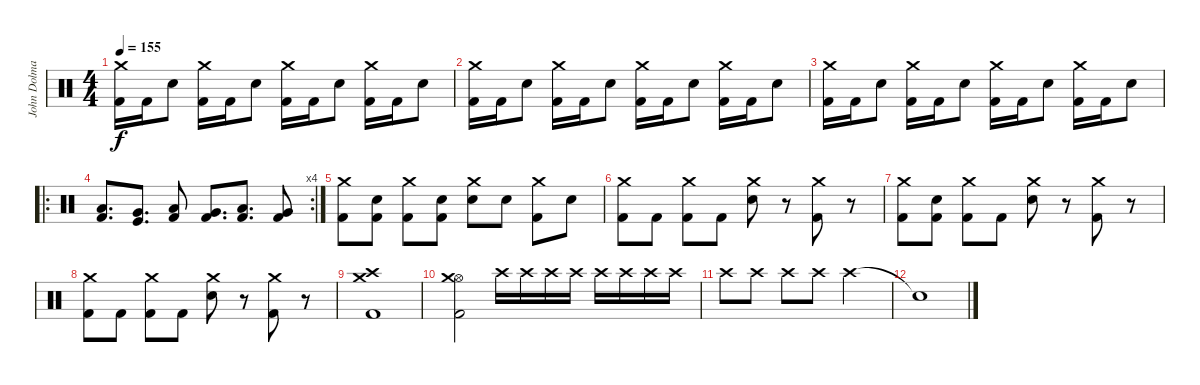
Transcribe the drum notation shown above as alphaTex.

\track ("John Dolmayan - Drums" "John Dolma") {instrument percussion}
\staff {score}
\articulation defaults
\ts (4 4)
\tempo 155
\clef neutral
\ks c
("Crash medium (hit)" "Kick (hit) 2").16{dy f} "Kick (hit) 2".16 "Electric Snare (hit)".8 ("Crash medium (hit)" "Kick (hit) 2").16 "Kick (hit) 2".16 "Electric Snare (hit)".8 ("Crash medium (hit)" "Kick (hit) 2").16 "Kick (hit) 2".16 "Electric Snare (hit)".8 ("Crash medium (hit)" "Kick (hit) 2").16 "Kick (hit) 2".16 "Electric Snare (hit)".8 |
("Kick (hit) 2" "Crash medium (hit)").16 "Kick (hit) 2".16 "Electric Snare (hit)".8 ("Kick (hit) 2" "Crash medium (hit)").16 "Kick (hit) 2".16 "Electric Snare (hit)".8 ("Kick (hit) 2" "Crash medium (hit)").16 "Kick (hit) 2".16 "Electric Snare (hit)".8 ("Kick (hit) 2" "Crash medium (hit)").16 "Kick (hit) 2".16 "Electric Snare (hit)".8 |
("Kick (hit) 2" "Crash medium (hit)").16 "Kick (hit) 2".16 "Electric Snare (hit)".8 ("Kick (hit) 2" "Crash medium (hit)").16 "Kick (hit) 2".16 "Electric Snare (hit)".8 ("Kick (hit) 2" "Crash medium (hit)").16 "Kick (hit) 2".16 "Electric Snare (hit)".8 ("Kick (hit) 2" "Crash medium (hit)").16 "Kick (hit) 2".16 "Electric Snare (hit)".8 |
\ro
\rc 4
("Low Tom (hit)" "Kick (hit) 2").8{d} ("Very Low Tom (hit)" "Kick (hit)").8{d} ("Low Tom (hit)" "Kick (hit) 2").8 ("Very Low Tom (hit)" "Kick (hit) 2").8{d} ("Low Tom (hit)" "Kick (hit) 2").8{d} ("Very Low Tom (hit)" "Kick (hit) 2").8 |
("Crash medium (hit)" "Kick (hit) 2").8 ("Snare (hit)" "Kick (hit) 2").8 ("Crash medium (hit)" "Kick (hit) 2").8 ("Snare (hit)" "Kick (hit) 2").8 ("Crash medium (hit)" "Electric Snare (hit)").8 "Snare (hit)".8 ("Crash medium (hit)" "Kick (hit) 2").8 "Snare (hit)".8 |
("Crash medium (hit)" "Kick (hit) 2").8 "Kick (hit) 2".8 ("Crash medium (hit)" "Kick (hit) 2").8 "Kick (hit) 2".8 ("Crash medium (hit)" "Electric Snare (hit)").8 r.8 ("Crash medium (hit)" "Kick (hit) 2").8 r.8 |
("Crash medium (hit)" "Kick (hit) 2").8 ("Snare (hit)" "Kick (hit) 2").8 ("Crash medium (hit)" "Kick (hit) 2").8 "Kick (hit) 2".8 ("Crash medium (hit)" "Electric Snare (hit)").8 r.8 ("Crash medium (hit)" "Kick (hit) 2").8 r.8 |
("Crash medium (hit)" "Kick (hit) 2").8 "Kick (hit) 2".8 ("Crash medium (hit)" "Kick (hit) 2").8 "Kick (hit) 2".8 ("Crash medium (hit)" "Electric Snare (hit)").8 r.8 ("Crash medium (hit)" "Kick (hit) 2").8 r.8 |
("Kick (hit) 2" "Crash medium (hit)" "Crash high (hit)").1 |
("Hi-Hat (open)" "Crash medium (hit)" "Kick (hit) 2").2 "Crash high (hit)".16 "Crash high (hit)".16 "Crash high (hit)".16 "Crash high (hit)".16 "Crash high (hit)".16 "Crash high (hit)".16 "Crash high (hit)".16 "Crash high (hit)".16 |
"Crash high (hit)".8 "Crash high (hit)".8 "Crash high (hit)".8 "Crash high (hit)".8 "Crash high (hit)".2 |
"Snare (hit)"{t}.1
